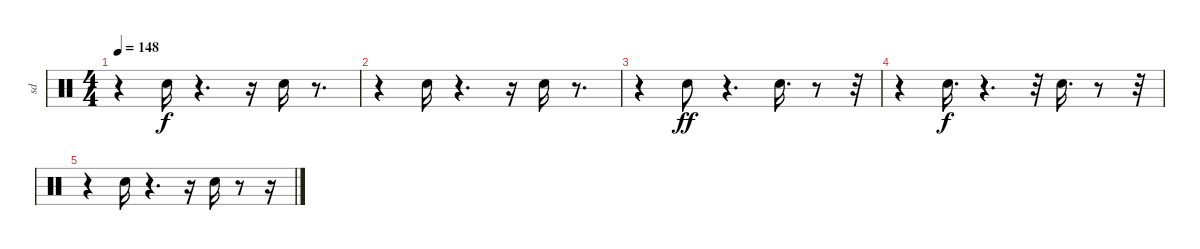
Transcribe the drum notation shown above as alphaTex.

\track ("sd                  " "sd        ") {instrument percussion}
\staff {score}
\articulation defaults
\ts (4 4)
\tempo 148
\clef neutral
\ks c
r.4{dy f} "Snare (hit) 2".16 r.4{d} r.16 "Snare (hit) 2".16 r.8{d} |
r.4 "Snare (hit) 2".16 r.4{d} r.16 "Snare (hit) 2".16 r.8{d} |
r.4 "Snare (hit) 2".8{dy ff} r.4{d} "Snare (hit) 2".16{d} r.8 r.32 |
r.4 "Snare (hit) 2".16{d dy f} r.4{d} r.32 "Snare (hit) 2".16{d} r.8 r.32 |
r.4 "Snare (hit) 2".16 r.4{d} r.16 "Snare (hit) 2".16 r.8 r.16
